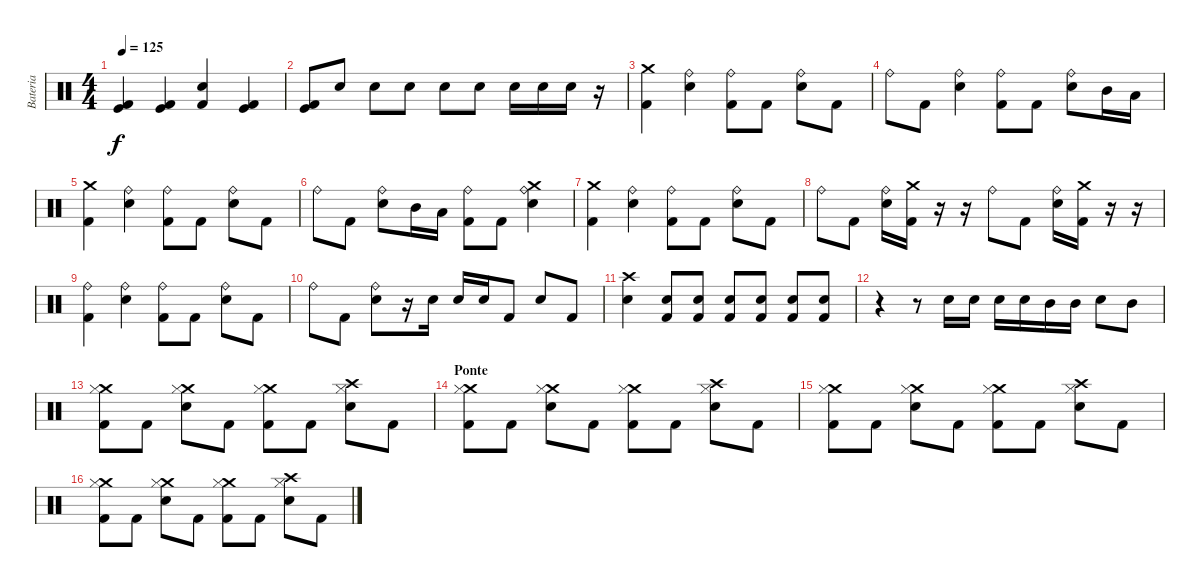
\track ("Bateria" "Bateria") {instrument percussion}
\staff {score}
\articulation defaults
\ts (4 4)
\tempo 125
\clef neutral
\ks c
("Kick (hit)" "Kick (hit) 2").4{dy f} ("Kick (hit) 2" "Kick (hit)").4 ("Electric Snare (hit)" "Kick (hit) 2").4 ("Kick (hit)" "Kick (hit) 2").4 |
("Kick (hit)" "Kick (hit) 2").8 "Electric Snare (hit)".8 "Electric Snare (hit)".8 "Electric Snare (hit)".8 "Electric Snare (hit)".8 "Electric Snare (hit)".8 "Electric Snare (hit)".16 "Electric Snare (hit)".16 "Electric Snare (hit)".16 r.16 |
("Crash medium (hit)" "Kick (hit) 2").4 ("Electric Snare (hit)" "Ride (bell)").4 ("Kick (hit) 2" "Ride (bell)").8 "Kick (hit) 2".8 ("Electric Snare (hit)" "Ride (bell)").8 "Kick (hit) 2".8 |
"Ride (bell)".8 "Kick (hit) 2".8 ("Electric Snare (hit)" "Ride (bell)").4 ("Kick (hit) 2" "Ride (bell)").8 "Kick (hit) 2".8 ("Electric Snare (hit)" "Ride (bell)").8 "Mid Tom (hit)".16 "Low Tom (hit)".16 |
("Crash medium (hit)" "Kick (hit) 2").4 ("Electric Snare (hit)" "Ride (bell)").4 ("Kick (hit) 2" "Ride (bell)").8 "Kick (hit) 2".8 ("Electric Snare (hit)" "Ride (bell)").8 "Kick (hit) 2".8 |
"Ride (bell)".8 "Kick (hit) 2".8 ("Electric Snare (hit)" "Ride (bell)").8 "Mid Tom (hit)".16 "Low Tom (hit)".16 ("Kick (hit) 2" "Ride (bell)").8 "Kick (hit) 2".8 ("Crash medium (hit)" "Electric Snare (hit)" "Ride (bell)").4 |
("Crash medium (hit)" "Kick (hit) 2").4 ("Electric Snare (hit)" "Ride (bell)").4 ("Kick (hit) 2" "Ride (bell)").8 "Kick (hit) 2".8 ("Electric Snare (hit)" "Ride (bell)").8 "Kick (hit) 2".8 |
"Ride (bell)".8 "Kick (hit) 2".8 ("Electric Snare (hit)" "Ride (bell)").16 ("Crash medium (hit)" "Kick (hit) 2").16 r.16 r.16 "Ride (bell)".8 "Kick (hit) 2".8 ("Electric Snare (hit)" "Ride (bell)").16 ("Crash medium (hit)" "Kick (hit) 2").16 r.16 r.16 |
("Kick (hit) 2" "Ride (bell)").4 ("Electric Snare (hit)" "Ride (bell)").4 ("Kick (hit) 2" "Ride (bell)").8 "Kick (hit) 2".8 ("Electric Snare (hit)" "Ride (bell)").8 "Kick (hit) 2".8 |
"Ride (bell)".8 "Kick (hit) 2".8 ("Electric Snare (hit)" "Ride (bell)").8 r.16 "Electric Snare (hit)".16 "Electric Snare (hit)".16 "Electric Snare (hit)".16 "Kick (hit) 2".8 "Electric Snare (hit)".8 "Kick (hit) 2".8 |
("Crash high (hit)" "Electric Snare (hit)").4 ("Snare (hit) 2" "Kick (hit) 2").8{volume 7} ("Snare (hit) 2" "Kick (hit) 2").8{volume 9} ("Snare (hit) 2" "Kick (hit) 2").8{volume 11} ("Snare (hit) 2" "Kick (hit) 2").8{volume 13} ("Snare (hit) 2" "Kick (hit) 2").8{volume 15} ("Electric Snare (hit)" "Kick (hit) 2").8{volume 16} |
r.4 r.8 "Electric Snare (hit)".16 "Electric Snare (hit)".16 "Electric Snare (hit)".16 "Electric Snare (hit)".16 "Mid Tom (hit)".16 "Mid Tom (hit)".16 "Electric Snare (hit)".8 "Mid Tom (hit)".8 |
("Crash medium (hit)" "Kick (hit) 2" "Hi-Hat (closed)").8 "Kick (hit) 2".8 ("Crash medium (hit)" "Electric Snare (hit)" "Hi-Hat (closed)").8 "Kick (hit) 2".8 ("Crash medium (hit)" "Kick (hit) 2" "Hi-Hat (closed)").8 "Kick (hit) 2".8 ("Crash high (hit)" "Electric Snare (hit)" "Hi-Hat (closed)").8 "Kick (hit) 2".8 |
\section ("" "Ponte")
("Crash medium (hit)" "Kick (hit) 2" "Hi-Hat (closed)").8 "Kick (hit) 2".8 ("Crash medium (hit)" "Electric Snare (hit)" "Hi-Hat (closed)").8 "Kick (hit) 2".8 ("Crash medium (hit)" "Kick (hit) 2" "Hi-Hat (closed)").8 "Kick (hit) 2".8 ("Crash high (hit)" "Electric Snare (hit)" "Hi-Hat (closed)").8 "Kick (hit) 2".8 |
("Crash medium (hit)" "Kick (hit) 2" "Hi-Hat (closed)").8 "Kick (hit) 2".8 ("Crash medium (hit)" "Electric Snare (hit)" "Hi-Hat (closed)").8 "Kick (hit) 2".8 ("Crash medium (hit)" "Kick (hit) 2" "Hi-Hat (closed)").8 "Kick (hit) 2".8 ("Crash high (hit)" "Electric Snare (hit)" "Hi-Hat (closed)").8 "Kick (hit) 2".8 |
("Crash medium (hit)" "Kick (hit) 2" "Hi-Hat (closed)").8 "Kick (hit) 2".8 ("Crash medium (hit)" "Electric Snare (hit)" "Hi-Hat (closed)").8 "Kick (hit) 2".8 ("Crash medium (hit)" "Kick (hit) 2" "Hi-Hat (closed)").8 "Kick (hit) 2".8 ("Crash high (hit)" "Electric Snare (hit)" "Hi-Hat (closed)").8 "Kick (hit) 2".8
